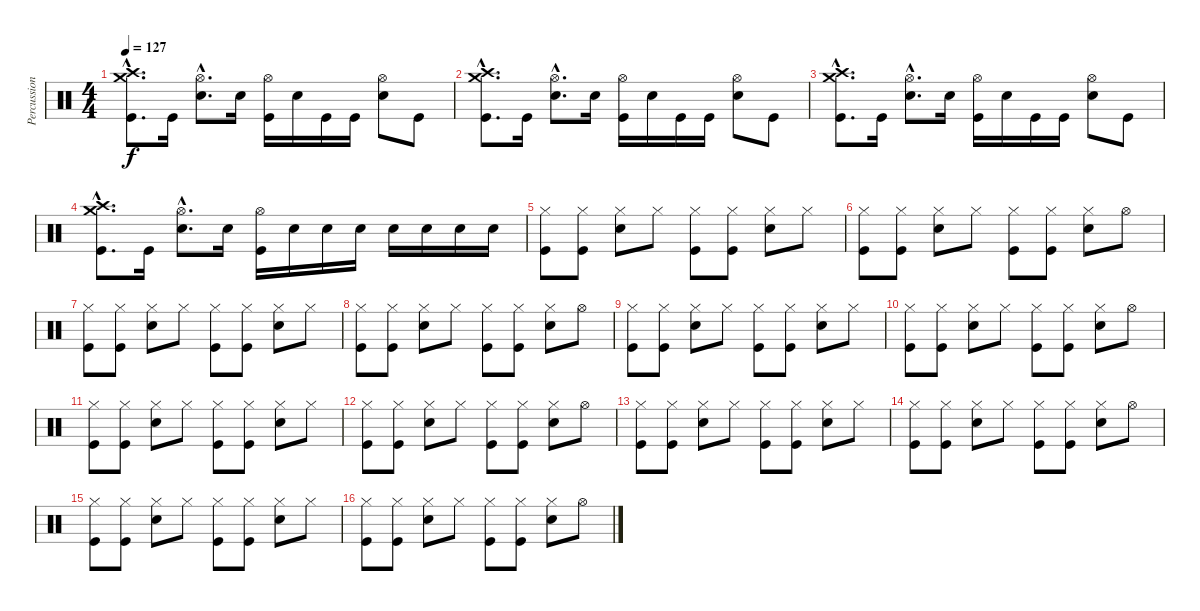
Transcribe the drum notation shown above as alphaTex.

\track ("Percussions" "Percussion") {instrument percussion}
\staff {score}
\articulation defaults
\ts (4 4)
\tempo 127
\clef neutral
\ks c
("Crash high (hit)"{hac} "Crash medium (hit)"{hac} "Kick (hit)"{hac}).8{d dy f} "Kick (hit)".16 ("Hi-Hat (open)"{hac} "Snare (hit) 2"{hac}).8{d} "Snare (hit) 2".16 ("Hi-Hat (open)" "Kick (hit)").16 "Snare (hit) 2".16 "Kick (hit)".16 "Kick (hit)".16 ("Hi-Hat (open)" "Snare (hit) 2").8 "Kick (hit)".8 |
("Crash high (hit)"{hac} "Crash medium (hit)"{hac} "Kick (hit)"{hac}).8{d} "Kick (hit)".16 ("Hi-Hat (open)"{hac} "Snare (hit) 2"{hac}).8{d} "Snare (hit) 2".16 ("Hi-Hat (open)" "Kick (hit)").16 "Snare (hit) 2".16 "Kick (hit)".16 "Kick (hit)".16 ("Hi-Hat (open)" "Snare (hit) 2").8 "Kick (hit)".8 |
("Crash high (hit)"{hac} "Crash medium (hit)"{hac} "Kick (hit)"{hac}).8{d} "Kick (hit)".16 ("Hi-Hat (open)"{hac} "Snare (hit) 2"{hac}).8{d} "Snare (hit) 2".16 ("Hi-Hat (open)" "Kick (hit)").16 "Snare (hit) 2".16 "Kick (hit)".16 "Kick (hit)".16 ("Hi-Hat (open)" "Snare (hit) 2").8 "Kick (hit)".8 |
("Crash high (hit)"{hac} "Crash medium (hit)"{hac} "Kick (hit)"{hac}).8{d} "Kick (hit)".16 ("Hi-Hat (open)"{hac} "Snare (hit) 2"{hac}).8{d} "Snare (hit) 2".16 ("Hi-Hat (open)" "Kick (hit)").16 "Snare (hit) 2".16 "Snare (hit) 2".16 "Snare (hit) 2".16 "Snare (hit) 2".16 "Snare (hit) 2".16 "Snare (hit) 2".16 "Snare (hit) 2".16 |
("Hi-Hat (closed)" "Kick (hit)").8 ("Hi-Hat (closed)" "Kick (hit)").8 ("Hi-Hat (closed)" "Snare (hit) 2").8 "Hi-Hat (closed)".8 ("Hi-Hat (closed)" "Kick (hit)").8 ("Hi-Hat (closed)" "Kick (hit)").8 ("Hi-Hat (closed)" "Snare (hit) 2").8 "Hi-Hat (closed)".8 |
("Hi-Hat (closed)" "Kick (hit)").8 ("Hi-Hat (closed)" "Kick (hit)").8 ("Hi-Hat (closed)" "Snare (hit) 2").8 "Hi-Hat (closed)".8 ("Hi-Hat (closed)" "Kick (hit)").8 ("Hi-Hat (closed)" "Kick (hit)").8 ("Hi-Hat (closed)" "Snare (hit) 2").8 "Hi-Hat (open)".8 |
("Hi-Hat (closed)" "Kick (hit)").8 ("Hi-Hat (closed)" "Kick (hit)").8 ("Hi-Hat (closed)" "Snare (hit) 2").8 "Hi-Hat (closed)".8 ("Hi-Hat (closed)" "Kick (hit)").8 ("Hi-Hat (closed)" "Kick (hit)").8 ("Hi-Hat (closed)" "Snare (hit) 2").8 "Hi-Hat (closed)".8 |
("Hi-Hat (closed)" "Kick (hit)").8 ("Hi-Hat (closed)" "Kick (hit)").8 ("Hi-Hat (closed)" "Snare (hit) 2").8 "Hi-Hat (closed)".8 ("Hi-Hat (closed)" "Kick (hit)").8 ("Hi-Hat (closed)" "Kick (hit)").8 ("Hi-Hat (closed)" "Snare (hit) 2").8 "Hi-Hat (open)".8 |
("Hi-Hat (closed)" "Kick (hit)").8 ("Hi-Hat (closed)" "Kick (hit)").8 ("Hi-Hat (closed)" "Snare (hit) 2").8 "Hi-Hat (closed)".8 ("Hi-Hat (closed)" "Kick (hit)").8 ("Hi-Hat (closed)" "Kick (hit)").8 ("Hi-Hat (closed)" "Snare (hit) 2").8 "Hi-Hat (closed)".8 |
("Hi-Hat (closed)" "Kick (hit)").8 ("Hi-Hat (closed)" "Kick (hit)").8 ("Hi-Hat (closed)" "Snare (hit) 2").8 "Hi-Hat (closed)".8 ("Hi-Hat (closed)" "Kick (hit)").8 ("Hi-Hat (closed)" "Kick (hit)").8 ("Hi-Hat (closed)" "Snare (hit) 2").8 "Hi-Hat (open)".8 |
("Hi-Hat (closed)" "Kick (hit)").8 ("Hi-Hat (closed)" "Kick (hit)").8 ("Hi-Hat (closed)" "Snare (hit) 2").8 "Hi-Hat (closed)".8 ("Hi-Hat (closed)" "Kick (hit)").8 ("Hi-Hat (closed)" "Kick (hit)").8 ("Hi-Hat (closed)" "Snare (hit) 2").8 "Hi-Hat (closed)".8 |
("Hi-Hat (closed)" "Kick (hit)").8 ("Hi-Hat (closed)" "Kick (hit)").8 ("Hi-Hat (closed)" "Snare (hit) 2").8 "Hi-Hat (closed)".8 ("Hi-Hat (closed)" "Kick (hit)").8 ("Hi-Hat (closed)" "Kick (hit)").8 ("Hi-Hat (closed)" "Snare (hit) 2").8 "Hi-Hat (open)".8 |
("Hi-Hat (closed)" "Kick (hit)").8 ("Hi-Hat (closed)" "Kick (hit)").8 ("Hi-Hat (closed)" "Snare (hit) 2").8 "Hi-Hat (closed)".8 ("Hi-Hat (closed)" "Kick (hit)").8 ("Hi-Hat (closed)" "Kick (hit)").8 ("Hi-Hat (closed)" "Snare (hit) 2").8 "Hi-Hat (closed)".8 |
("Hi-Hat (closed)" "Kick (hit)").8 ("Hi-Hat (closed)" "Kick (hit)").8 ("Hi-Hat (closed)" "Snare (hit) 2").8 "Hi-Hat (closed)".8 ("Hi-Hat (closed)" "Kick (hit)").8 ("Hi-Hat (closed)" "Kick (hit)").8 ("Hi-Hat (closed)" "Snare (hit) 2").8 "Hi-Hat (open)".8 |
("Hi-Hat (closed)" "Kick (hit)").8 ("Hi-Hat (closed)" "Kick (hit)").8 ("Hi-Hat (closed)" "Snare (hit) 2").8 "Hi-Hat (closed)".8 ("Hi-Hat (closed)" "Kick (hit)").8 ("Hi-Hat (closed)" "Kick (hit)").8 ("Hi-Hat (closed)" "Snare (hit) 2").8 "Hi-Hat (closed)".8 |
("Hi-Hat (closed)" "Kick (hit)").8 ("Hi-Hat (closed)" "Kick (hit)").8 ("Hi-Hat (closed)" "Snare (hit) 2").8 "Hi-Hat (closed)".8 ("Hi-Hat (closed)" "Kick (hit)").8 ("Hi-Hat (closed)" "Kick (hit)").8 ("Hi-Hat (closed)" "Snare (hit) 2").8 "Hi-Hat (open)".8
